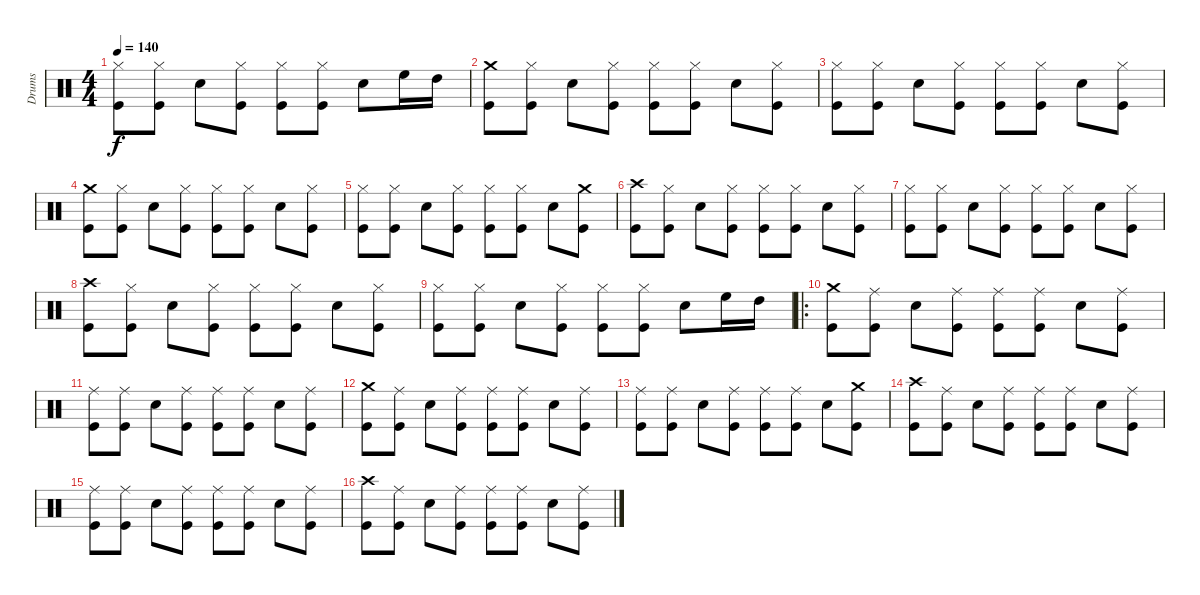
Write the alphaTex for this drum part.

\track ("Drums" "Drums") {instrument percussion}
\staff {score}
\articulation defaults
\ts (4 4)
\tempo 140
\clef neutral
\ks c
("Hi-Hat (closed)" "Kick (hit)").8{dy f} ("Hi-Hat (closed)" "Kick (hit)").8 "Electric Snare (hit)".8 ("Hi-Hat (closed)" "Kick (hit)").8 ("Hi-Hat (closed)" "Kick (hit)").8 ("Hi-Hat (closed)" "Kick (hit)").8 "Electric Snare (hit)".8 "High Floor Tom (hit)".16 "High Tom (hit)".16 |
("Crash medium (hit)" "Kick (hit)").8 ("Hi-Hat (closed)" "Kick (hit)").8 "Electric Snare (hit)".8 ("Hi-Hat (closed)" "Kick (hit)").8 ("Hi-Hat (closed)" "Kick (hit)").8 ("Hi-Hat (closed)" "Kick (hit)").8 "Electric Snare (hit)".8 ("Hi-Hat (closed)" "Kick (hit)").8 |
("Hi-Hat (closed)" "Kick (hit)").8 ("Hi-Hat (closed)" "Kick (hit)").8 "Electric Snare (hit)".8 ("Hi-Hat (closed)" "Kick (hit)").8 ("Hi-Hat (closed)" "Kick (hit)").8 ("Hi-Hat (closed)" "Kick (hit)").8 "Electric Snare (hit)".8 ("Hi-Hat (closed)" "Kick (hit)").8 |
("Crash medium (hit)" "Kick (hit)").8 ("Hi-Hat (closed)" "Kick (hit)").8 "Electric Snare (hit)".8 ("Hi-Hat (closed)" "Kick (hit)").8 ("Hi-Hat (closed)" "Kick (hit)").8 ("Hi-Hat (closed)" "Kick (hit)").8 "Electric Snare (hit)".8 ("Hi-Hat (closed)" "Kick (hit)").8 |
("Hi-Hat (closed)" "Kick (hit)").8 ("Hi-Hat (closed)" "Kick (hit)").8 "Electric Snare (hit)".8 ("Hi-Hat (closed)" "Kick (hit)").8 ("Hi-Hat (closed)" "Kick (hit)").8 ("Hi-Hat (closed)" "Kick (hit)").8 "Electric Snare (hit)".8 ("Crash medium (hit)" "Kick (hit)").8 |
("Crash high (hit)" "Kick (hit)").8 ("Hi-Hat (closed)" "Kick (hit)").8 "Electric Snare (hit)".8 ("Hi-Hat (closed)" "Kick (hit)").8 ("Hi-Hat (closed)" "Kick (hit)").8 ("Hi-Hat (closed)" "Kick (hit)").8 "Electric Snare (hit)".8 ("Hi-Hat (closed)" "Kick (hit)").8 |
("Hi-Hat (closed)" "Kick (hit)").8 ("Hi-Hat (closed)" "Kick (hit)").8 "Electric Snare (hit)".8 ("Hi-Hat (closed)" "Kick (hit)").8 ("Hi-Hat (closed)" "Kick (hit)").8 ("Hi-Hat (closed)" "Kick (hit)").8 "Electric Snare (hit)".8 ("Hi-Hat (closed)" "Kick (hit)").8 |
("Crash high (hit)" "Kick (hit)").8 ("Hi-Hat (closed)" "Kick (hit)").8 "Electric Snare (hit)".8 ("Hi-Hat (closed)" "Kick (hit)").8 ("Hi-Hat (closed)" "Kick (hit)").8 ("Hi-Hat (closed)" "Kick (hit)").8 "Electric Snare (hit)".8 ("Hi-Hat (closed)" "Kick (hit)").8 |
("Hi-Hat (closed)" "Kick (hit)").8 ("Hi-Hat (closed)" "Kick (hit)").8 "Electric Snare (hit)".8 ("Hi-Hat (closed)" "Kick (hit)").8 ("Hi-Hat (closed)" "Kick (hit)").8 ("Hi-Hat (closed)" "Kick (hit)").8 "Electric Snare (hit)".8 "High Floor Tom (hit)".16 "High Tom (hit)".16 |
\ro
("Crash medium (hit)" "Kick (hit)").8 ("Ride (middle)" "Kick (hit)").8 "Electric Snare (hit)".8 ("Ride (middle)" "Kick (hit)").8 ("Ride (middle)" "Kick (hit)").8 ("Ride (middle)" "Kick (hit)").8 "Electric Snare (hit)".8 ("Ride (middle)" "Kick (hit)").8 |
("Ride (middle)" "Kick (hit)").8 ("Ride (middle)" "Kick (hit)").8 "Electric Snare (hit)".8 ("Ride (middle)" "Kick (hit)").8 ("Ride (middle)" "Kick (hit)").8 ("Ride (middle)" "Kick (hit)").8 "Electric Snare (hit)".8 ("Ride (middle)" "Kick (hit)").8 |
("Crash medium (hit)" "Kick (hit)").8 ("Ride (middle)" "Kick (hit)").8 "Electric Snare (hit)".8 ("Ride (middle)" "Kick (hit)").8 ("Ride (middle)" "Kick (hit)").8 ("Ride (middle)" "Kick (hit)").8 "Electric Snare (hit)".8 ("Ride (middle)" "Kick (hit)").8 |
("Ride (middle)" "Kick (hit)").8 ("Ride (middle)" "Kick (hit)").8 "Electric Snare (hit)".8 ("Ride (middle)" "Kick (hit)").8 ("Ride (middle)" "Kick (hit)").8 ("Ride (middle)" "Kick (hit)").8 "Electric Snare (hit)".8 ("Crash medium (hit)" "Kick (hit)").8 |
("Crash high (hit)" "Kick (hit)").8 ("Ride (middle)" "Kick (hit)").8 "Electric Snare (hit)".8 ("Ride (middle)" "Kick (hit)").8 ("Ride (middle)" "Kick (hit)").8 ("Ride (middle)" "Kick (hit)").8 "Electric Snare (hit)".8 ("Ride (middle)" "Kick (hit)").8 |
("Ride (middle)" "Kick (hit)").8 ("Ride (middle)" "Kick (hit)").8 "Electric Snare (hit)".8 ("Ride (middle)" "Kick (hit)").8 ("Ride (middle)" "Kick (hit)").8 ("Ride (middle)" "Kick (hit)").8 "Electric Snare (hit)".8 ("Ride (middle)" "Kick (hit)").8 |
("Crash high (hit)" "Kick (hit)").8 ("Ride (middle)" "Kick (hit)").8 "Electric Snare (hit)".8 ("Ride (middle)" "Kick (hit)").8 ("Ride (middle)" "Kick (hit)").8 ("Ride (middle)" "Kick (hit)").8 "Electric Snare (hit)".8 ("Ride (middle)" "Kick (hit)").8
